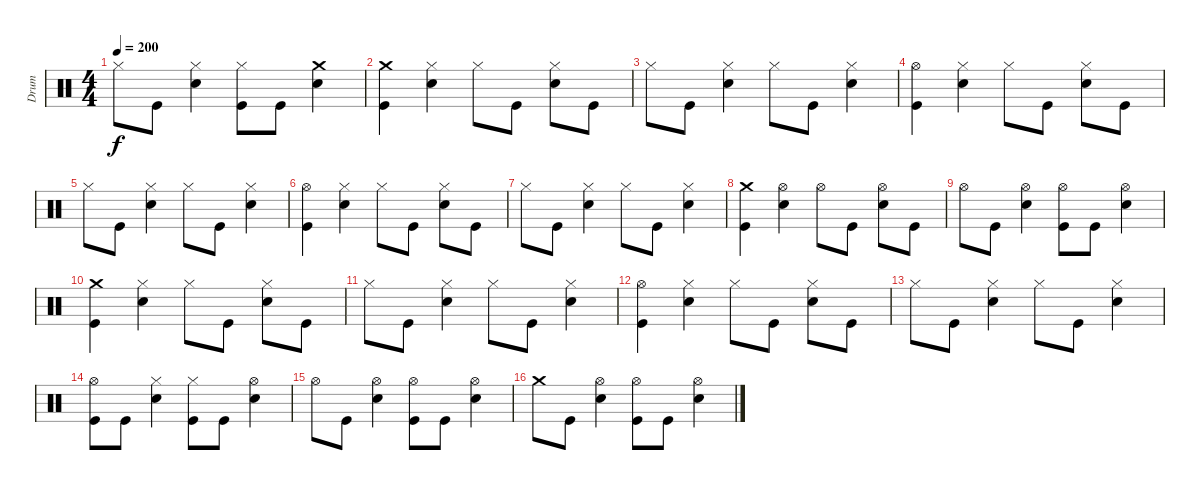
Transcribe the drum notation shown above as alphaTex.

\track ("Drum" "Drum") {instrument percussion}
\staff {score}
\articulation defaults
\ts (4 4)
\tempo 200
\clef neutral
\ks c "Hi-Hat (closed)".8{dy f} "Kick (hit)".8
("Hi-Hat (closed)" "Snare (hit) 2").4 ("Hi-Hat (closed)" "Kick (hit)").8 "Kick (hit)".8 ("Crash medium (hit)" "Snare (hit) 2").4 |
("Crash medium (hit)" "Kick (hit)").4 ("Hi-Hat (closed)" "Snare (hit) 2").4 "Hi-Hat (closed)".8 "Kick (hit)".8 ("Hi-Hat (closed)" "Snare (hit) 2").8 "Kick (hit)".8 |
"Hi-Hat (closed)".8 "Kick (hit)".8 ("Hi-Hat (closed)" "Snare (hit) 2").4 "Hi-Hat (closed)".8 "Kick (hit)".8 ("Hi-Hat (closed)" "Snare (hit) 2").4 |
("Hi-Hat (open)" "Kick (hit)").4 ("Hi-Hat (closed)" "Snare (hit) 2").4 "Hi-Hat (closed)".8 "Kick (hit)".8 ("Hi-Hat (closed)" "Snare (hit) 2").8 "Kick (hit)".8 |
"Hi-Hat (closed)".8 "Kick (hit)".8 ("Hi-Hat (closed)" "Snare (hit) 2").4 "Hi-Hat (closed)".8 "Kick (hit)".8 ("Hi-Hat (closed)" "Snare (hit) 2").4 |
("Hi-Hat (open)" "Kick (hit)").4 ("Hi-Hat (closed)" "Snare (hit) 2").4 "Hi-Hat (closed)".8 "Kick (hit)".8 ("Hi-Hat (closed)" "Snare (hit) 2").8 "Kick (hit)".8 |
"Hi-Hat (closed)".8 "Kick (hit)".8 ("Hi-Hat (closed)" "Snare (hit) 2").4 "Hi-Hat (closed)".8 "Kick (hit)".8 ("Hi-Hat (closed)" "Snare (hit) 2").4 |
("Crash medium (hit)" "Kick (hit)").4 ("Hi-Hat (open)" "Snare (hit) 2").4 "Hi-Hat (open)".8 "Kick (hit)".8 ("Hi-Hat (open)" "Snare (hit) 2").8 "Kick (hit)".8 |
"Hi-Hat (open)".8 "Kick (hit)".8 ("Hi-Hat (open)" "Snare (hit) 2").4 ("Hi-Hat (open)" "Kick (hit)").8 "Kick (hit)".8 ("Hi-Hat (open)" "Snare (hit) 2").4 |
("Crash medium (hit)" "Kick (hit)").4 ("Hi-Hat (closed)" "Snare (hit) 2").4 "Hi-Hat (closed)".8 "Kick (hit)".8 ("Hi-Hat (closed)" "Snare (hit) 2").8 "Kick (hit)".8 |
"Hi-Hat (closed)".8 "Kick (hit)".8 ("Hi-Hat (closed)" "Snare (hit) 2").4 "Hi-Hat (closed)".8 "Kick (hit)".8 ("Hi-Hat (closed)" "Snare (hit) 2").4 |
("Hi-Hat (open)" "Kick (hit)").4 ("Hi-Hat (closed)" "Snare (hit) 2").4 "Hi-Hat (closed)".8 "Kick (hit)".8 ("Hi-Hat (closed)" "Snare (hit) 2").8 "Kick (hit)".8 |
"Hi-Hat (closed)".8 "Kick (hit)".8 ("Hi-Hat (closed)" "Snare (hit) 2").4 "Hi-Hat (closed)".8 "Kick (hit)".8 ("Hi-Hat (closed)" "Snare (hit) 2").4 |
("Hi-Hat (open)" "Kick (hit)").8 "Kick (hit)".8 ("Hi-Hat (closed)" "Snare (hit) 2").4 ("Hi-Hat (closed)" "Kick (hit)").8 "Kick (hit)".8 ("Hi-Hat (open)" "Snare (hit) 2").4 |
"Hi-Hat (open)".8 "Kick (hit)".8 ("Hi-Hat (open)" "Snare (hit) 2").4 ("Hi-Hat (open)" "Kick (hit)").8 "Kick (hit)".8 ("Hi-Hat (open)" "Snare (hit) 2").4 |
"Crash medium (hit)".8 "Kick (hit)".8 ("Hi-Hat (open)" "Snare (hit) 2").4 ("Hi-Hat (open)" "Kick (hit)").8 "Kick (hit)".8 ("Hi-Hat (open)" "Snare (hit) 2").4
